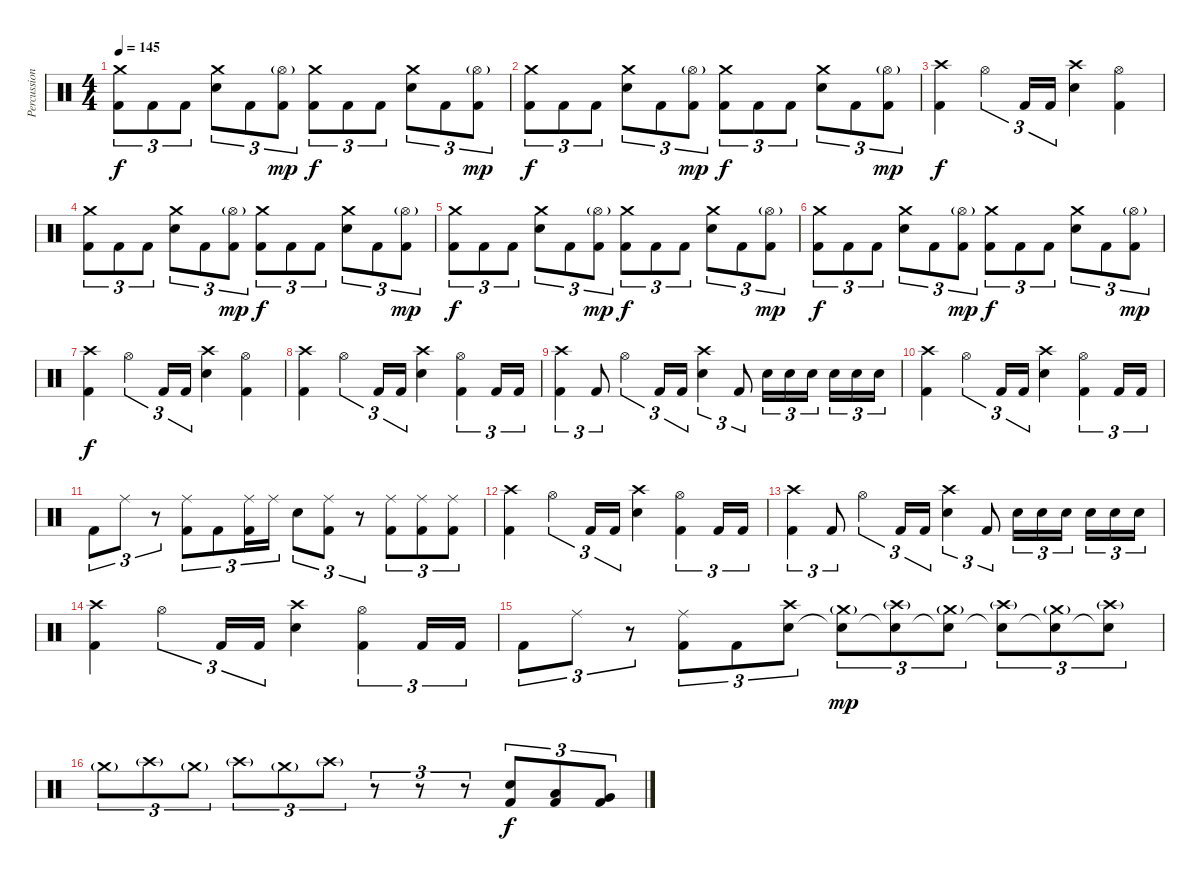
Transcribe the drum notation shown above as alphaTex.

\track ("Percussion" "Percussion") {instrument percussion}
\staff {score}
\articulation defaults
\ts (4 4)
\tempo 145
\clef neutral
\ks c
("Crash medium (hit)" "Kick (hit) 2").8{tu (3 2) dy f} "Kick (hit) 2".8{tu (3 2)} "Kick (hit) 2".8{tu (3 2)} ("Crash medium (hit)" "Electric Snare (hit)").8{tu (3 2)} "Kick (hit) 2".8{tu (3 2)} ("Hi-Hat (open)"{g} "Kick (hit) 2").8{tu (3 2) dy mp} ("Crash medium (hit)" "Kick (hit) 2").8{tu (3 2) dy f} "Kick (hit) 2".8{tu (3 2)} "Kick (hit) 2".8{tu (3 2)} ("Crash medium (hit)" "Electric Snare (hit)").8{tu (3 2)} "Kick (hit) 2".8{tu (3 2)} ("Hi-Hat (open)"{g} "Kick (hit) 2").8{tu (3 2) dy mp} |
("Crash medium (hit)" "Kick (hit) 2").8{tu (3 2) dy f} "Kick (hit) 2".8{tu (3 2)} "Kick (hit) 2".8{tu (3 2)} ("Crash medium (hit)" "Electric Snare (hit)").8{tu (3 2)} "Kick (hit) 2".8{tu (3 2)} ("Hi-Hat (open)"{g} "Kick (hit) 2").8{tu (3 2) dy mp} ("Crash medium (hit)" "Kick (hit) 2").8{tu (3 2) dy f} "Kick (hit) 2".8{tu (3 2)} "Kick (hit) 2".8{tu (3 2)} ("Crash medium (hit)" "Electric Snare (hit)").8{tu (3 2)} "Kick (hit) 2".8{tu (3 2)} ("Hi-Hat (open)"{g} "Kick (hit) 2").8{tu (3 2) dy mp} |
("Crash high (hit)" "Kick (hit) 2").4{dy f} "Hi-Hat (open)".4{tu (3 2)} "Kick (hit) 2".16{tu (3 2)} "Kick (hit) 2".16{tu (3 2)} ("Crash high (hit)" "Electric Snare (hit)").4 ("Hi-Hat (open)" "Kick (hit) 2").4 |
("Crash medium (hit)" "Kick (hit) 2").8{tu (3 2)} "Kick (hit) 2".8{tu (3 2)} "Kick (hit) 2".8{tu (3 2)} ("Crash medium (hit)" "Electric Snare (hit)").8{tu (3 2)} "Kick (hit) 2".8{tu (3 2)} ("Hi-Hat (open)"{g} "Kick (hit) 2").8{tu (3 2) dy mp} ("Crash medium (hit)" "Kick (hit) 2").8{tu (3 2) dy f} "Kick (hit) 2".8{tu (3 2)} "Kick (hit) 2".8{tu (3 2)} ("Crash medium (hit)" "Electric Snare (hit)").8{tu (3 2)} "Kick (hit) 2".8{tu (3 2)} ("Hi-Hat (open)"{g} "Kick (hit) 2").8{tu (3 2) dy mp} |
("Crash medium (hit)" "Kick (hit) 2").8{tu (3 2) dy f} "Kick (hit) 2".8{tu (3 2)} "Kick (hit) 2".8{tu (3 2)} ("Crash medium (hit)" "Electric Snare (hit)").8{tu (3 2)} "Kick (hit) 2".8{tu (3 2)} ("Hi-Hat (open)"{g} "Kick (hit) 2").8{tu (3 2) dy mp} ("Crash medium (hit)" "Kick (hit) 2").8{tu (3 2) dy f} "Kick (hit) 2".8{tu (3 2)} "Kick (hit) 2".8{tu (3 2)} ("Crash medium (hit)" "Electric Snare (hit)").8{tu (3 2)} "Kick (hit) 2".8{tu (3 2)} ("Hi-Hat (open)"{g} "Kick (hit) 2").8{tu (3 2) dy mp} |
("Crash medium (hit)" "Kick (hit) 2").8{tu (3 2) dy f} "Kick (hit) 2".8{tu (3 2)} "Kick (hit) 2".8{tu (3 2)} ("Crash medium (hit)" "Electric Snare (hit)").8{tu (3 2)} "Kick (hit) 2".8{tu (3 2)} ("Hi-Hat (open)"{g} "Kick (hit) 2").8{tu (3 2) dy mp} ("Crash medium (hit)" "Kick (hit) 2").8{tu (3 2) dy f} "Kick (hit) 2".8{tu (3 2)} "Kick (hit) 2".8{tu (3 2)} ("Crash medium (hit)" "Electric Snare (hit)").8{tu (3 2)} "Kick (hit) 2".8{tu (3 2)} ("Hi-Hat (open)"{g} "Kick (hit) 2").8{tu (3 2) dy mp} |
("Crash high (hit)" "Kick (hit) 2").4{dy f} "Hi-Hat (open)".4{tu (3 2)} "Kick (hit) 2".16{tu (3 2)} "Kick (hit) 2".16{tu (3 2)} ("Crash high (hit)" "Electric Snare (hit)").4 ("Hi-Hat (open)" "Kick (hit) 2").4 |
("Crash high (hit)" "Kick (hit) 2").4 "Hi-Hat (open)".4{tu (3 2)} "Kick (hit) 2".16{tu (3 2)} "Kick (hit) 2".16{tu (3 2)} ("Crash high (hit)" "Electric Snare (hit)").4 ("Hi-Hat (open)" "Kick (hit) 2").4{tu (3 2)} "Kick (hit) 2".16{tu (3 2)} "Kick (hit) 2".16{tu (3 2)} |
("Crash high (hit)" "Kick (hit) 2").4{tu (3 2)} "Kick (hit) 2".8{tu (3 2)} "Hi-Hat (open)".4{tu (3 2)} "Kick (hit) 2".16{tu (3 2)} "Kick (hit) 2".16{tu (3 2)} ("Crash high (hit)" "Electric Snare (hit)").4{tu (3 2)} "Kick (hit) 2".8{tu (3 2)} "Electric Snare (hit)".16{tu (3 2)} "Electric Snare (hit)".16{tu (3 2)} "Electric Snare (hit)".16{tu (3 2)} "Electric Snare (hit)".16{tu (3 2)} "Electric Snare (hit)".16{tu (3 2)} "Electric Snare (hit)".16{tu (3 2)} |
("Crash high (hit)" "Kick (hit) 2").4 "Hi-Hat (open)".4{tu (3 2)} "Kick (hit) 2".16{tu (3 2)} "Kick (hit) 2".16{tu (3 2)} ("Crash high (hit)" "Electric Snare (hit)").4 ("Hi-Hat (open)" "Kick (hit) 2").4{tu (3 2)} "Kick (hit) 2".16{tu (3 2)} "Kick (hit) 2".16{tu (3 2)} |
"Kick (hit) 2".8{tu (3 2)} "Ride (middle)".8{tu (3 2)} r.8{tu (3 2)} ("Ride (middle)" "Kick (hit) 2").8{tu (3 2)} "Kick (hit) 2".8{tu (3 2)} ("Ride (middle)" "Kick (hit) 2").16{tu (3 2)} "Ride (middle)".16{tu (3 2)} "Electric Snare (hit)".8{tu (3 2)} ("Ride (middle)" "Kick (hit) 2").8{tu (3 2)} r.8{tu (3 2)} ("Ride (middle)" "Kick (hit) 2").8{tu (3 2)} ("Ride (middle)" "Kick (hit) 2").8{tu (3 2)} ("Ride (middle)" "Kick (hit) 2").8{tu (3 2)} |
("Crash high (hit)" "Kick (hit) 2").4 "Hi-Hat (open)".4{tu (3 2)} "Kick (hit) 2".16{tu (3 2)} "Kick (hit) 2".16{tu (3 2)} ("Crash high (hit)" "Electric Snare (hit)").4 ("Hi-Hat (open)" "Kick (hit) 2").4{tu (3 2)} "Kick (hit) 2".16{tu (3 2)} "Kick (hit) 2".16{tu (3 2)} |
("Crash high (hit)" "Kick (hit) 2").4{tu (3 2)} "Kick (hit) 2".8{tu (3 2)} "Hi-Hat (open)".4{tu (3 2)} "Kick (hit) 2".16{tu (3 2)} "Kick (hit) 2".16{tu (3 2)} ("Crash high (hit)" "Electric Snare (hit)").4{tu (3 2)} "Kick (hit) 2".8{tu (3 2)} "Electric Snare (hit)".16{tu (3 2)} "Electric Snare (hit)".16{tu (3 2)} "Electric Snare (hit)".16{tu (3 2)} "Electric Snare (hit)".16{tu (3 2)} "Electric Snare (hit)".16{tu (3 2)} "Electric Snare (hit)".16{tu (3 2)} |
("Crash high (hit)" "Kick (hit) 2").4 "Hi-Hat (open)".4{tu (3 2)} "Kick (hit) 2".16{tu (3 2)} "Kick (hit) 2".16{tu (3 2)} ("Crash high (hit)" "Electric Snare (hit)").4 ("Hi-Hat (open)" "Kick (hit) 2").4{tu (3 2)} "Kick (hit) 2".16{tu (3 2)} "Kick (hit) 2".16{tu (3 2)} |
"Kick (hit) 2".8{tu (3 2)} "Ride (middle)".8{tu (3 2)} r.8{tu (3 2)} ("Ride (middle)" "Kick (hit) 2").8{tu (3 2)} "Kick (hit) 2".8{tu (3 2)} ("Crash high (hit)" "Electric Snare (hit)").8{tu (3 2)} ("Crash medium (hit)"{g} "Snare (hit)"{t}).8{tu (3 2) dy mp} ("Crash high (hit)"{g} "Snare (hit)"{t}).8{tu (3 2)} ("Crash medium (hit)"{g} "Snare (hit)"{t}).8{tu (3 2)} ("Crash high (hit)"{g} "Snare (hit)"{t}).8{tu (3 2)} ("Crash medium (hit)"{g} "Snare (hit)"{t}).8{tu (3 2)} ("Crash high (hit)"{g} "Snare (hit)"{t}).8{tu (3 2)} |
"Crash medium (hit)"{g}.8{tu (3 2)} "Crash high (hit)"{g}.8{tu (3 2)} "Crash medium (hit)"{g}.8{tu (3 2)} "Crash high (hit)"{g}.8{tu (3 2)} "Crash medium (hit)"{g}.8{tu (3 2)} "Crash high (hit)"{g}.8{tu (3 2)} r.8{tu (3 2)} r.8{tu (3 2)} r.8{tu (3 2)} ("Electric Snare (hit)" "Kick (hit) 2").8{tu (3 2) dy f} ("Low Tom (hit)" "Kick (hit) 2").8{tu (3 2)} ("Very Low Tom (hit)" "Kick (hit) 2").8{tu (3 2)}
